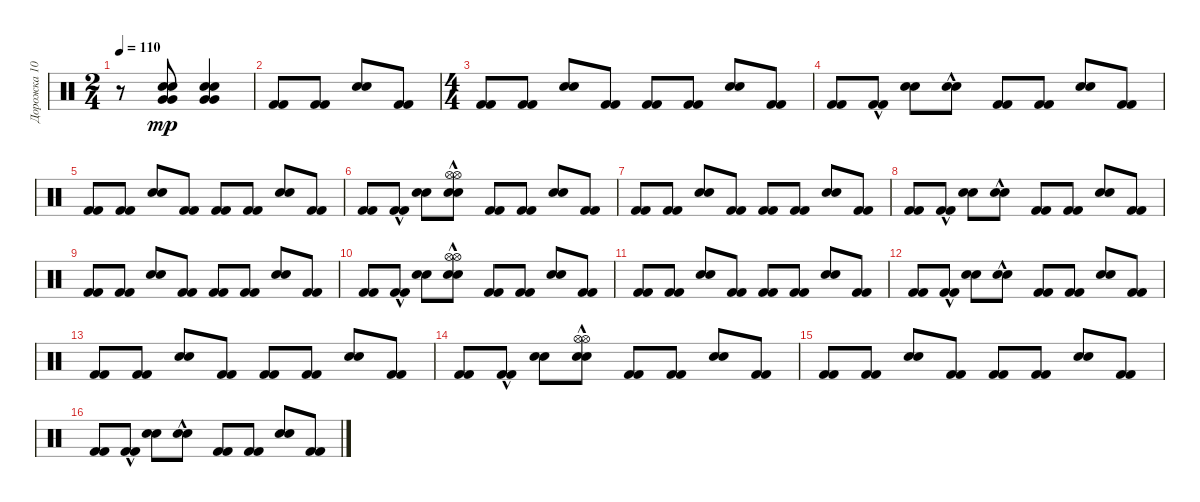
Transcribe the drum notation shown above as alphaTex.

\track ("Дорожка 10" "Дорожка 10") {instrument percussion}
\staff {score}
\articulation defaults
\ts (2 4)
\tempo 110
\clef neutral
\ks c
r.8{dy mp} ("Snare (hit) 2" "Very Low Tom (hit)" "Snare (hit) 2" "Very Low Tom (hit)").8 ("Snare (hit) 2" "Very Low Tom (hit)" "Snare (hit) 2" "Very Low Tom (hit)").4 |
("Kick (hit) 2" "Kick (hit) 2").8 ("Kick (hit) 2" "Kick (hit) 2").8 ("Snare (hit) 2" "Snare (hit) 2").8 ("Kick (hit) 2" "Kick (hit) 2").8 |
\ts (4 4)
("Kick (hit) 2" "Kick (hit) 2").8 ("Kick (hit) 2" "Kick (hit) 2").8 ("Snare (hit) 2" "Snare (hit) 2").8 ("Kick (hit) 2" "Kick (hit) 2").8 ("Kick (hit) 2" "Kick (hit) 2").8 ("Kick (hit) 2" "Kick (hit) 2").8 ("Snare (hit) 2" "Snare (hit) 2").8 ("Kick (hit) 2" "Kick (hit) 2").8 |
("Kick (hit) 2" "Kick (hit) 2").8 ("Kick (hit) 2"{hac} "Kick (hit) 2"{hac}).8 ("Snare (hit) 2" "Snare (hit) 2").8 ("Snare (hit) 2"{hac} "Snare (hit) 2"{hac}).8 ("Kick (hit) 2" "Kick (hit) 2").8 ("Kick (hit) 2" "Kick (hit) 2").8 ("Snare (hit) 2" "Snare (hit) 2").8 ("Kick (hit) 2" "Kick (hit) 2").8 |
("Kick (hit) 2" "Kick (hit) 2").8 ("Kick (hit) 2" "Kick (hit) 2").8 ("Snare (hit) 2" "Snare (hit) 2").8 ("Kick (hit) 2" "Kick (hit) 2").8 ("Kick (hit) 2" "Kick (hit) 2").8 ("Kick (hit) 2" "Kick (hit) 2").8 ("Snare (hit) 2" "Snare (hit) 2").8 ("Kick (hit) 2" "Kick (hit) 2").8 |
("Kick (hit) 2" "Kick (hit) 2").8 ("Kick (hit) 2"{hac} "Kick (hit) 2"{hac}).8 ("Snare (hit) 2" "Snare (hit) 2").8 ("Snare (hit) 2"{hac} "Hi-Hat (open)" "Snare (hit) 2"{hac} "Hi-Hat (open)").8 ("Kick (hit) 2" "Kick (hit) 2").8 ("Kick (hit) 2" "Kick (hit) 2").8 ("Snare (hit) 2" "Snare (hit) 2").8 ("Kick (hit) 2" "Kick (hit) 2").8 |
("Kick (hit) 2" "Kick (hit) 2").8 ("Kick (hit) 2" "Kick (hit) 2").8 ("Snare (hit) 2" "Snare (hit) 2").8 ("Kick (hit) 2" "Kick (hit) 2").8 ("Kick (hit) 2" "Kick (hit) 2").8 ("Kick (hit) 2" "Kick (hit) 2").8 ("Snare (hit) 2" "Snare (hit) 2").8 ("Kick (hit) 2" "Kick (hit) 2").8 |
("Kick (hit) 2" "Kick (hit) 2").8 ("Kick (hit) 2"{hac} "Kick (hit) 2"{hac}).8 ("Snare (hit) 2" "Snare (hit) 2").8 ("Snare (hit) 2"{hac} "Snare (hit) 2"{hac}).8 ("Kick (hit) 2" "Kick (hit) 2").8 ("Kick (hit) 2" "Kick (hit) 2").8 ("Snare (hit) 2" "Snare (hit) 2").8 ("Kick (hit) 2" "Kick (hit) 2").8 |
("Kick (hit) 2" "Kick (hit) 2").8 ("Kick (hit) 2" "Kick (hit) 2").8 ("Snare (hit) 2" "Snare (hit) 2").8 ("Kick (hit) 2" "Kick (hit) 2").8 ("Kick (hit) 2" "Kick (hit) 2").8 ("Kick (hit) 2" "Kick (hit) 2").8 ("Snare (hit) 2" "Snare (hit) 2").8 ("Kick (hit) 2" "Kick (hit) 2").8 |
("Kick (hit) 2" "Kick (hit) 2").8 ("Kick (hit) 2"{hac} "Kick (hit) 2"{hac}).8 ("Snare (hit) 2" "Snare (hit) 2").8 ("Snare (hit) 2"{hac} "Hi-Hat (open)" "Snare (hit) 2"{hac} "Hi-Hat (open)").8 ("Kick (hit) 2" "Kick (hit) 2").8 ("Kick (hit) 2" "Kick (hit) 2").8 ("Snare (hit) 2" "Snare (hit) 2").8 ("Kick (hit) 2" "Kick (hit) 2").8 |
("Kick (hit) 2" "Kick (hit) 2").8 ("Kick (hit) 2" "Kick (hit) 2").8 ("Snare (hit) 2" "Snare (hit) 2").8 ("Kick (hit) 2" "Kick (hit) 2").8 ("Kick (hit) 2" "Kick (hit) 2").8 ("Kick (hit) 2" "Kick (hit) 2").8 ("Snare (hit) 2" "Snare (hit) 2").8 ("Kick (hit) 2" "Kick (hit) 2").8 |
("Kick (hit) 2" "Kick (hit) 2").8 ("Kick (hit) 2"{hac} "Kick (hit) 2"{hac}).8 ("Snare (hit) 2" "Snare (hit) 2").8 ("Snare (hit) 2"{hac} "Snare (hit) 2"{hac}).8 ("Kick (hit) 2" "Kick (hit) 2").8 ("Kick (hit) 2" "Kick (hit) 2").8 ("Snare (hit) 2" "Snare (hit) 2").8 ("Kick (hit) 2" "Kick (hit) 2").8 |
("Kick (hit) 2" "Kick (hit) 2").8 ("Kick (hit) 2" "Kick (hit) 2").8 ("Snare (hit) 2" "Snare (hit) 2").8 ("Kick (hit) 2" "Kick (hit) 2").8 ("Kick (hit) 2" "Kick (hit) 2").8 ("Kick (hit) 2" "Kick (hit) 2").8 ("Snare (hit) 2" "Snare (hit) 2").8 ("Kick (hit) 2" "Kick (hit) 2").8 |
("Kick (hit) 2" "Kick (hit) 2").8 ("Kick (hit) 2"{hac} "Kick (hit) 2"{hac}).8 ("Snare (hit) 2" "Snare (hit) 2").8 ("Snare (hit) 2"{hac} "Hi-Hat (open)" "Snare (hit) 2"{hac} "Hi-Hat (open)").8 ("Kick (hit) 2" "Kick (hit) 2").8 ("Kick (hit) 2" "Kick (hit) 2").8 ("Snare (hit) 2" "Snare (hit) 2").8 ("Kick (hit) 2" "Kick (hit) 2").8 |
("Kick (hit) 2" "Kick (hit) 2").8 ("Kick (hit) 2" "Kick (hit) 2").8 ("Snare (hit) 2" "Snare (hit) 2").8 ("Kick (hit) 2" "Kick (hit) 2").8 ("Kick (hit) 2" "Kick (hit) 2").8 ("Kick (hit) 2" "Kick (hit) 2").8 ("Snare (hit) 2" "Snare (hit) 2").8 ("Kick (hit) 2" "Kick (hit) 2").8 |
("Kick (hit) 2" "Kick (hit) 2").8 ("Kick (hit) 2"{hac} "Kick (hit) 2"{hac}).8 ("Snare (hit) 2" "Snare (hit) 2").8 ("Snare (hit) 2"{hac} "Snare (hit) 2"{hac}).8 ("Kick (hit) 2" "Kick (hit) 2").8 ("Kick (hit) 2" "Kick (hit) 2").8 ("Snare (hit) 2" "Snare (hit) 2").8 ("Kick (hit) 2" "Kick (hit) 2").8
